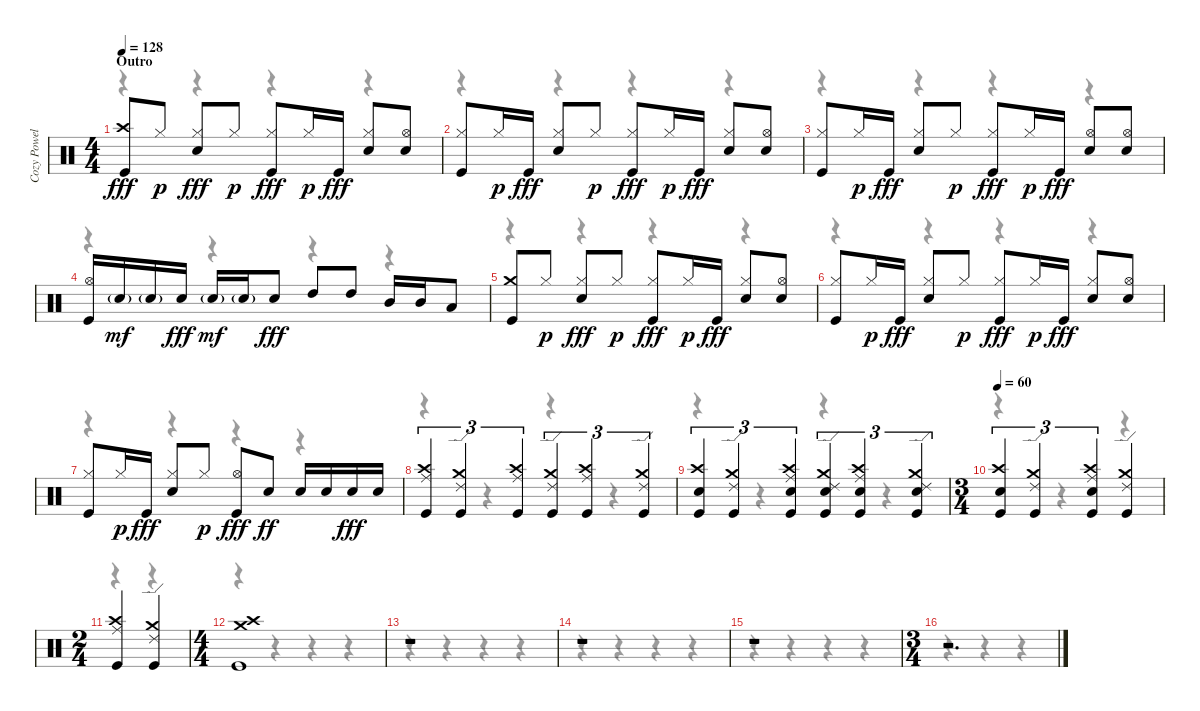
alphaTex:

\track ("Cozy Powell - Drums" "Cozy Powel") {instrument percussion}
\staff {score}
\articulation defaults
\voice
\ts (4 4)
\section ("" "Outro")
\tempo 128
\clef neutral
\ks c
("Kick (hit)" "Crash high (hit)").8{dy fff} "Hi-Hat (closed)".8{dy p} ("Snare (hit) 2" "Hi-Hat (closed)").8{dy fff} "Hi-Hat (closed)".8{dy p} ("Kick (hit)" "Hi-Hat (closed)").8{dy fff} "Hi-Hat (closed)".16{dy p} "Kick (hit)".16{dy fff} ("Snare (hit) 2" "Hi-Hat (closed)").8 ("Snare (hit) 2" "Hi-Hat (open)").8 |
("Kick (hit)" "Hi-Hat (closed)").8 "Hi-Hat (closed)".16{dy p} "Kick (hit)".16{dy fff} ("Snare (hit) 2" "Hi-Hat (closed)").8 "Hi-Hat (closed)".8{dy p} ("Kick (hit)" "Hi-Hat (closed)").8{dy fff} "Hi-Hat (closed)".16{dy p} "Kick (hit)".16{dy fff} ("Snare (hit) 2" "Hi-Hat (closed)").8 ("Snare (hit) 2" "Hi-Hat (open)").8 |
("Kick (hit)" "Hi-Hat (closed)").8 "Hi-Hat (closed)".16{dy p} "Kick (hit)".16{dy fff} ("Snare (hit) 2" "Hi-Hat (closed)").8 "Hi-Hat (closed)".8{dy p} ("Kick (hit)" "Hi-Hat (closed)").8{dy fff} "Hi-Hat (closed)".16{dy p} "Kick (hit)".16{dy fff} ("Snare (hit) 2" "Hi-Hat (open)").8 ("Snare (hit) 2" "Hi-Hat (open)").8 |
("Kick (hit)" "Hi-Hat (open)").16 "Snare (hit) 2"{g}.16{dy mf} "Snare (hit) 2"{g}.16 "Snare (hit) 2".16{dy fff} "Snare (hit) 2"{g}.16{dy mf} "Snare (hit) 2"{g}.16 "Snare (hit) 2".8{dy fff} "High Tom (hit)".8 "High Tom (hit)".8 "Mid Tom (hit)".16 "Mid Tom (hit)".16 "Low Tom (hit)".8 |
("Kick (hit)" "Crash medium (hit)").8 "Hi-Hat (closed)".8{dy p} ("Snare (hit) 2" "Hi-Hat (closed)").8{dy fff} "Hi-Hat (closed)".8{dy p} ("Kick (hit)" "Hi-Hat (closed)").8{dy fff} "Hi-Hat (closed)".16{dy p} "Kick (hit)".16{dy fff} ("Snare (hit) 2" "Hi-Hat (closed)").8 ("Snare (hit) 2" "Hi-Hat (open)").8 |
("Kick (hit)" "Hi-Hat (closed)").8 "Hi-Hat (closed)".16{dy p} "Kick (hit)".16{dy fff} ("Snare (hit) 2" "Hi-Hat (closed)").8 "Hi-Hat (closed)".8{dy p} ("Kick (hit)" "Hi-Hat (closed)").8{dy fff} "Hi-Hat (closed)".16{dy p} "Kick (hit)".16{dy fff} ("Snare (hit) 2" "Hi-Hat (closed)").8 ("Snare (hit) 2" "Hi-Hat (open)").8 |
("Kick (hit)" "Hi-Hat (closed)").8 "Hi-Hat (closed)".16{dy p} "Kick (hit)".16{dy fff} ("Snare (hit) 2" "Hi-Hat (closed)").8 "Hi-Hat (closed)".8{dy p} ("Kick (hit)" "Hi-Hat (open)").8{dy fff} "Snare (hit) 2".8{dy ff} "Snare (hit) 2".16 "Snare (hit) 2".16 "Snare (hit) 2".16{dy fff} "Snare (hit) 2".16 |
("Kick (hit)" "Ride (middle)" "Crash high (hit)").4{tu (3 2)} ("Kick (hit)" "Ride (edge) 2" "Crash medium (hit)").4{tu (3 2)} ("Kick (hit)" "Ride (middle)" "Crash high (hit)").4{tu (3 2)} ("Kick (hit)" "Ride (edge) 2" "Crash medium (hit)").4{tu (3 2)} ("Kick (hit)" "Ride (middle)" "Crash high (hit)").4{tu (3 2)} ("Kick (hit)" "Ride (edge) 2" "Crash medium (hit)").4{tu (3 2)} |
("Kick (hit)" "Snare (hit) 2" "Crash high (hit)").4{tu (3 2)} ("Kick (hit)" "Ride (edge) 2" "Crash medium (hit)").4{tu (3 2)} ("Kick (hit)" "Snare (hit) 2" "Ride (middle)" "Crash high (hit)").4{tu (3 2)} ("Kick (hit)" "Snare (hit) 2" "Ride (edge) 2" "Crash medium (hit)").4{tu (3 2)} ("Kick (hit)" "Snare (hit) 2" "Ride (middle)" "Crash high (hit)").4{tu (3 2)} ("Kick (hit)" "Snare (hit) 2" "Ride (edge) 2" "Crash medium (hit)").4{tu (3 2)} |
\ts (3 4)
\tempo 60
("Kick (hit)" "Snare (hit) 2" "Crash high (hit)").4{tu (3 2)} ("Kick (hit)" "Ride (edge) 2" "Crash medium (hit)").4{tu (3 2)} ("Kick (hit)" "Snare (hit) 2" "Ride (middle)" "Crash high (hit)").4{tu (3 2)} ("Kick (hit)" "Ride (edge) 2" "Crash medium (hit)").4 |
\ts (2 4)
("Kick (hit)" "Ride (middle)" "Crash high (hit)").4 ("Kick (hit)" "Ride (edge) 2" "Crash medium (hit)").4 |
\ts (4 4)
("Kick (hit)" "Crash medium (hit)" "Crash high (hit)").1 |
r.1 |
r.1 |
r.1 |
\ts (3 4)
r.2{d}
\voice
\clef neutral
\ottava regular
\simile none
\ks c
r.4{dy f} r.4 r.4 r.4 |
r.4 r.4 r.4 r.4 |
r.4 r.4 r.4 r.4 |
r.4 r.4 r.4 r.4 |
r.4 r.4 r.4 r.4 |
r.4 r.4 r.4 r.4 |
r.4 r.4 r.4 r.4 |
r.4 r.4 r.4 r.4 |
r.4 r.4 r.4 r.4 |
r.4 r.4 r.4 |
r.4 r.4 |
r.4 r.4 r.4 r.4 |
r.4 r.4 r.4 r.4 |
r.4 r.4 r.4 r.4 |
r.4 r.4 r.4 r.4 |
r.4 r.4 r.4
